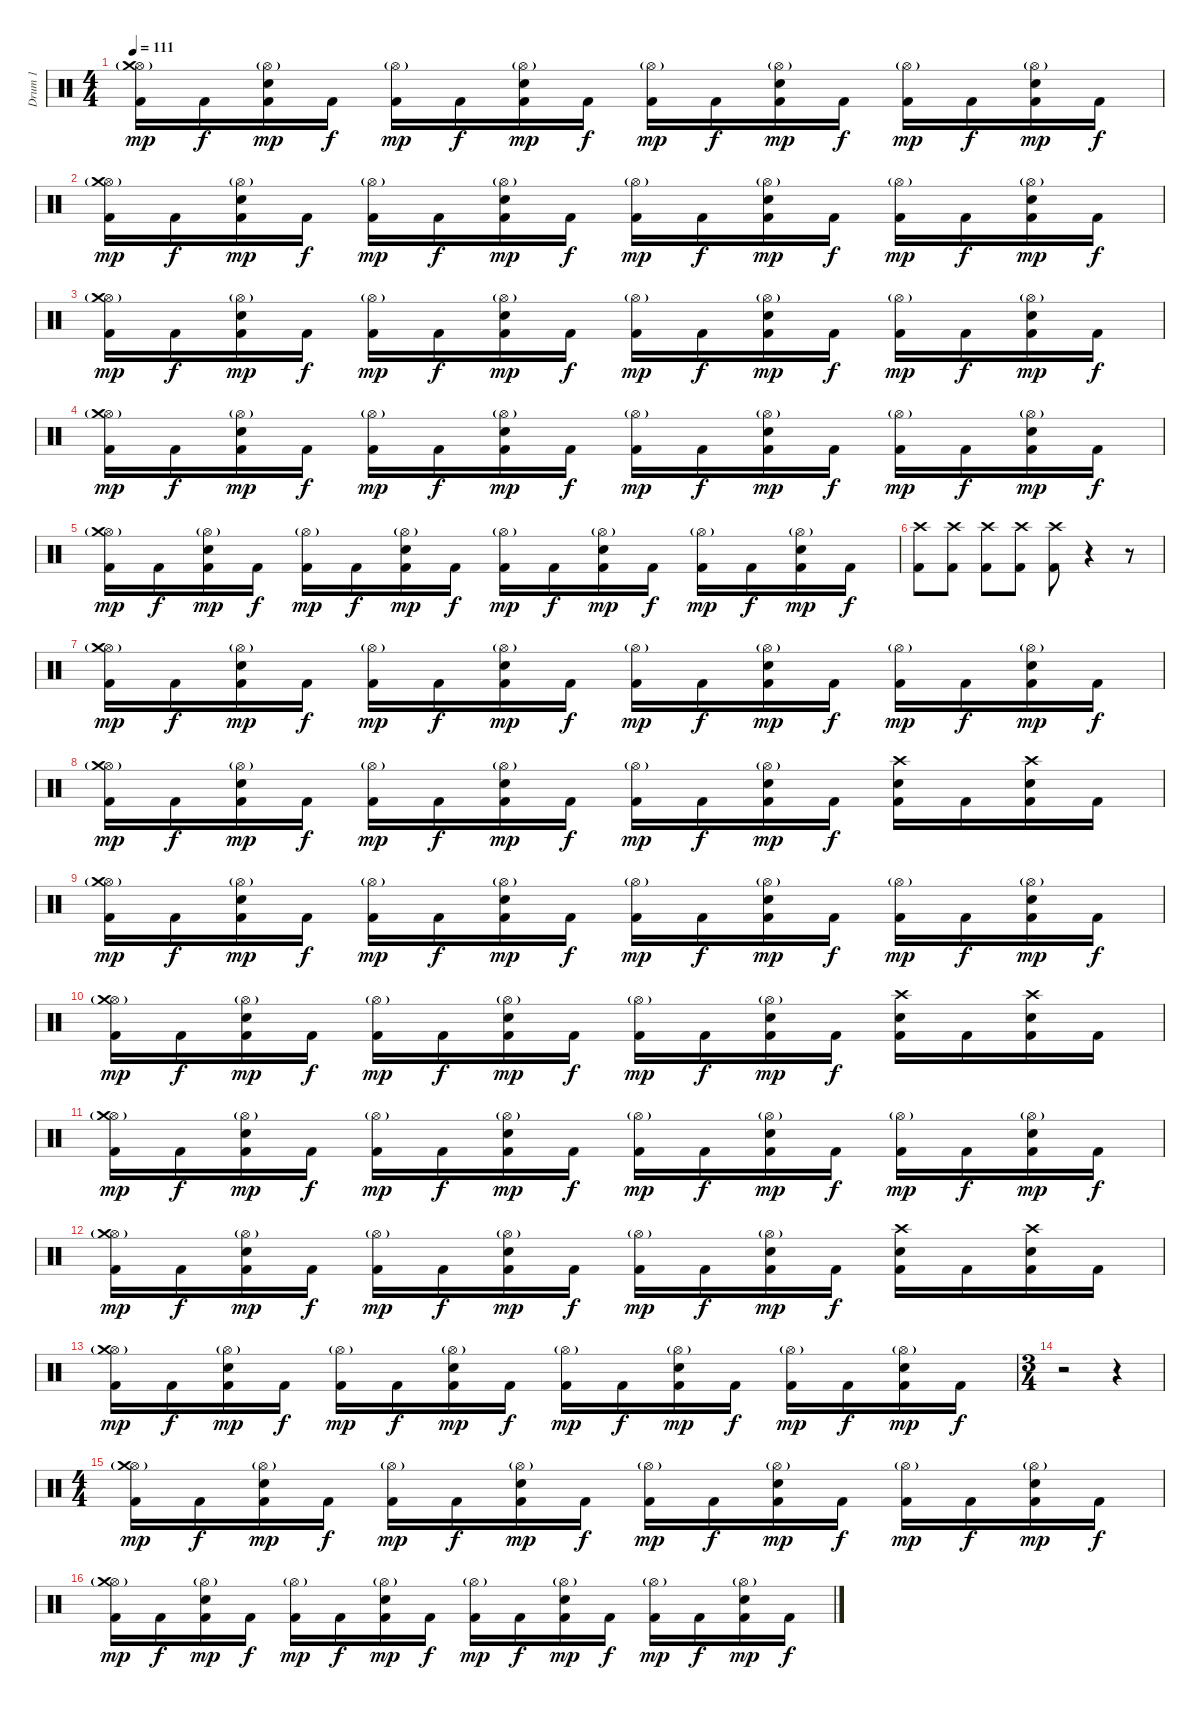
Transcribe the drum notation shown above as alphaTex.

\track ("Drum 1" "Drum 1") {instrument percussion}
\staff {score}
\articulation defaults
\ts (4 4)
\tempo 111
\clef neutral
\ks c
("Kick (hit) 2" "Hi-Hat (open)"{g} "Crash medium (hit)").16{dy mp} "Kick (hit) 2".16{dy f} ("Kick (hit) 2" "Hi-Hat (open)"{g} "Electric Snare (hit)").16{dy mp} "Kick (hit) 2".16{dy f} ("Kick (hit) 2" "Hi-Hat (open)"{g}).16{dy mp} "Kick (hit) 2".16{dy f} ("Kick (hit) 2" "Hi-Hat (open)"{g} "Electric Snare (hit)").16{dy mp} "Kick (hit) 2".16{dy f} ("Kick (hit) 2" "Hi-Hat (open)"{g}).16{dy mp} "Kick (hit) 2".16{dy f} ("Kick (hit) 2" "Hi-Hat (open)"{g} "Electric Snare (hit)").16{dy mp} "Kick (hit) 2".16{dy f} ("Kick (hit) 2" "Hi-Hat (open)"{g}).16{dy mp} "Kick (hit) 2".16{dy f} ("Kick (hit) 2" "Hi-Hat (open)"{g} "Electric Snare (hit)").16{dy mp} "Kick (hit) 2".16{dy f} |
("Kick (hit) 2" "Hi-Hat (open)"{g} "Crash medium (hit)").16{dy mp} "Kick (hit) 2".16{dy f} ("Kick (hit) 2" "Hi-Hat (open)"{g} "Electric Snare (hit)").16{dy mp} "Kick (hit) 2".16{dy f} ("Kick (hit) 2" "Hi-Hat (open)"{g}).16{dy mp} "Kick (hit) 2".16{dy f} ("Kick (hit) 2" "Hi-Hat (open)"{g} "Electric Snare (hit)").16{dy mp} "Kick (hit) 2".16{dy f} ("Kick (hit) 2" "Hi-Hat (open)"{g}).16{dy mp} "Kick (hit) 2".16{dy f} ("Kick (hit) 2" "Hi-Hat (open)"{g} "Electric Snare (hit)").16{dy mp} "Kick (hit) 2".16{dy f} ("Kick (hit) 2" "Hi-Hat (open)"{g}).16{dy mp} "Kick (hit) 2".16{dy f} ("Kick (hit) 2" "Hi-Hat (open)"{g} "Electric Snare (hit)").16{dy mp} "Kick (hit) 2".16{dy f} |
("Kick (hit) 2" "Hi-Hat (open)"{g} "Crash medium (hit)").16{dy mp} "Kick (hit) 2".16{dy f} ("Kick (hit) 2" "Hi-Hat (open)"{g} "Electric Snare (hit)").16{dy mp} "Kick (hit) 2".16{dy f} ("Kick (hit) 2" "Hi-Hat (open)"{g}).16{dy mp} "Kick (hit) 2".16{dy f} ("Kick (hit) 2" "Hi-Hat (open)"{g} "Electric Snare (hit)").16{dy mp} "Kick (hit) 2".16{dy f} ("Kick (hit) 2" "Hi-Hat (open)"{g}).16{dy mp} "Kick (hit) 2".16{dy f} ("Kick (hit) 2" "Hi-Hat (open)"{g} "Electric Snare (hit)").16{dy mp} "Kick (hit) 2".16{dy f} ("Kick (hit) 2" "Hi-Hat (open)"{g}).16{dy mp} "Kick (hit) 2".16{dy f} ("Kick (hit) 2" "Hi-Hat (open)"{g} "Electric Snare (hit)").16{dy mp} "Kick (hit) 2".16{dy f} |
("Kick (hit) 2" "Hi-Hat (open)"{g} "Crash medium (hit)").16{dy mp} "Kick (hit) 2".16{dy f} ("Kick (hit) 2" "Hi-Hat (open)"{g} "Electric Snare (hit)").16{dy mp} "Kick (hit) 2".16{dy f} ("Kick (hit) 2" "Hi-Hat (open)"{g}).16{dy mp} "Kick (hit) 2".16{dy f} ("Kick (hit) 2" "Hi-Hat (open)"{g} "Electric Snare (hit)").16{dy mp} "Kick (hit) 2".16{dy f} ("Kick (hit) 2" "Hi-Hat (open)"{g}).16{dy mp} "Kick (hit) 2".16{dy f} ("Kick (hit) 2" "Hi-Hat (open)"{g} "Electric Snare (hit)").16{dy mp} "Kick (hit) 2".16{dy f} ("Kick (hit) 2" "Hi-Hat (open)"{g}).16{dy mp} "Kick (hit) 2".16{dy f} ("Kick (hit) 2" "Hi-Hat (open)"{g} "Electric Snare (hit)").16{dy mp} "Kick (hit) 2".16{dy f} |
("Kick (hit) 2" "Hi-Hat (open)"{g} "Crash medium (hit)").16{dy mp} "Kick (hit) 2".16{dy f} ("Kick (hit) 2" "Hi-Hat (open)"{g} "Electric Snare (hit)").16{dy mp} "Kick (hit) 2".16{dy f} ("Kick (hit) 2" "Hi-Hat (open)"{g}).16{dy mp} "Kick (hit) 2".16{dy f} ("Kick (hit) 2" "Hi-Hat (open)"{g} "Electric Snare (hit)").16{dy mp} "Kick (hit) 2".16{dy f} ("Kick (hit) 2" "Hi-Hat (open)"{g}).16{dy mp} "Kick (hit) 2".16{dy f} ("Kick (hit) 2" "Hi-Hat (open)"{g} "Electric Snare (hit)").16{dy mp} "Kick (hit) 2".16{dy f} ("Kick (hit) 2" "Hi-Hat (open)"{g}).16{dy mp} "Kick (hit) 2".16{dy f} ("Kick (hit) 2" "Hi-Hat (open)"{g} "Electric Snare (hit)").16{dy mp} "Kick (hit) 2".16{dy f} |
("Kick (hit) 2" "Crash high (hit)").8 ("Kick (hit) 2" "Crash high (hit)").8 ("Kick (hit) 2" "Crash high (hit)").8 ("Kick (hit) 2" "Crash high (hit)").8 ("Kick (hit) 2" "Crash high (hit)").8 r.4 r.8 |
("Kick (hit) 2" "Hi-Hat (open)"{g} "Crash medium (hit)").16{dy mp} "Kick (hit) 2".16{dy f} ("Kick (hit) 2" "Hi-Hat (open)"{g} "Electric Snare (hit)").16{dy mp} "Kick (hit) 2".16{dy f} ("Kick (hit) 2" "Hi-Hat (open)"{g}).16{dy mp} "Kick (hit) 2".16{dy f} ("Kick (hit) 2" "Hi-Hat (open)"{g} "Electric Snare (hit)").16{dy mp} "Kick (hit) 2".16{dy f} ("Kick (hit) 2" "Hi-Hat (open)"{g}).16{dy mp} "Kick (hit) 2".16{dy f} ("Kick (hit) 2" "Hi-Hat (open)"{g} "Electric Snare (hit)").16{dy mp} "Kick (hit) 2".16{dy f} ("Kick (hit) 2" "Hi-Hat (open)"{g}).16{dy mp} "Kick (hit) 2".16{dy f} ("Kick (hit) 2" "Hi-Hat (open)"{g} "Electric Snare (hit)").16{dy mp} "Kick (hit) 2".16{dy f} |
("Kick (hit) 2" "Hi-Hat (open)"{g} "Crash medium (hit)").16{dy mp} "Kick (hit) 2".16{dy f} ("Kick (hit) 2" "Hi-Hat (open)"{g} "Electric Snare (hit)").16{dy mp} "Kick (hit) 2".16{dy f} ("Kick (hit) 2" "Hi-Hat (open)"{g}).16{dy mp} "Kick (hit) 2".16{dy f} ("Kick (hit) 2" "Hi-Hat (open)"{g} "Electric Snare (hit)").16{dy mp} "Kick (hit) 2".16{dy f} ("Kick (hit) 2" "Hi-Hat (open)"{g}).16{dy mp} "Kick (hit) 2".16{dy f} ("Kick (hit) 2" "Hi-Hat (open)"{g} "Electric Snare (hit)").16{dy mp} "Kick (hit) 2".16{dy f} ("Kick (hit) 2" "Crash high (hit)" "Electric Snare (hit)").16 "Kick (hit) 2".16 ("Kick (hit) 2" "Crash high (hit)" "Electric Snare (hit)").16 "Kick (hit) 2".16 |
("Kick (hit) 2" "Hi-Hat (open)"{g} "Crash medium (hit)").16{dy mp} "Kick (hit) 2".16{dy f} ("Kick (hit) 2" "Hi-Hat (open)"{g} "Electric Snare (hit)").16{dy mp} "Kick (hit) 2".16{dy f} ("Kick (hit) 2" "Hi-Hat (open)"{g}).16{dy mp} "Kick (hit) 2".16{dy f} ("Kick (hit) 2" "Hi-Hat (open)"{g} "Electric Snare (hit)").16{dy mp} "Kick (hit) 2".16{dy f} ("Kick (hit) 2" "Hi-Hat (open)"{g}).16{dy mp} "Kick (hit) 2".16{dy f} ("Kick (hit) 2" "Hi-Hat (open)"{g} "Electric Snare (hit)").16{dy mp} "Kick (hit) 2".16{dy f} ("Kick (hit) 2" "Hi-Hat (open)"{g}).16{dy mp} "Kick (hit) 2".16{dy f} ("Kick (hit) 2" "Hi-Hat (open)"{g} "Electric Snare (hit)").16{dy mp} "Kick (hit) 2".16{dy f} |
("Kick (hit) 2" "Hi-Hat (open)"{g} "Crash medium (hit)").16{dy mp} "Kick (hit) 2".16{dy f} ("Kick (hit) 2" "Hi-Hat (open)"{g} "Electric Snare (hit)").16{dy mp} "Kick (hit) 2".16{dy f} ("Kick (hit) 2" "Hi-Hat (open)"{g}).16{dy mp} "Kick (hit) 2".16{dy f} ("Kick (hit) 2" "Hi-Hat (open)"{g} "Electric Snare (hit)").16{dy mp} "Kick (hit) 2".16{dy f} ("Kick (hit) 2" "Hi-Hat (open)"{g}).16{dy mp} "Kick (hit) 2".16{dy f} ("Kick (hit) 2" "Hi-Hat (open)"{g} "Electric Snare (hit)").16{dy mp} "Kick (hit) 2".16{dy f} ("Kick (hit) 2" "Crash high (hit)" "Electric Snare (hit)").16 "Kick (hit) 2".16 ("Kick (hit) 2" "Crash high (hit)" "Electric Snare (hit)").16 "Kick (hit) 2".16 |
("Kick (hit) 2" "Hi-Hat (open)"{g} "Crash medium (hit)").16{dy mp} "Kick (hit) 2".16{dy f} ("Kick (hit) 2" "Hi-Hat (open)"{g} "Electric Snare (hit)").16{dy mp} "Kick (hit) 2".16{dy f} ("Kick (hit) 2" "Hi-Hat (open)"{g}).16{dy mp} "Kick (hit) 2".16{dy f} ("Kick (hit) 2" "Hi-Hat (open)"{g} "Electric Snare (hit)").16{dy mp} "Kick (hit) 2".16{dy f} ("Kick (hit) 2" "Hi-Hat (open)"{g}).16{dy mp} "Kick (hit) 2".16{dy f} ("Kick (hit) 2" "Hi-Hat (open)"{g} "Electric Snare (hit)").16{dy mp} "Kick (hit) 2".16{dy f} ("Kick (hit) 2" "Hi-Hat (open)"{g}).16{dy mp} "Kick (hit) 2".16{dy f} ("Kick (hit) 2" "Hi-Hat (open)"{g} "Electric Snare (hit)").16{dy mp} "Kick (hit) 2".16{dy f} |
("Kick (hit) 2" "Hi-Hat (open)"{g} "Crash medium (hit)").16{dy mp} "Kick (hit) 2".16{dy f} ("Kick (hit) 2" "Hi-Hat (open)"{g} "Electric Snare (hit)").16{dy mp} "Kick (hit) 2".16{dy f} ("Kick (hit) 2" "Hi-Hat (open)"{g}).16{dy mp} "Kick (hit) 2".16{dy f} ("Kick (hit) 2" "Hi-Hat (open)"{g} "Electric Snare (hit)").16{dy mp} "Kick (hit) 2".16{dy f} ("Kick (hit) 2" "Hi-Hat (open)"{g}).16{dy mp} "Kick (hit) 2".16{dy f} ("Kick (hit) 2" "Hi-Hat (open)"{g} "Electric Snare (hit)").16{dy mp} "Kick (hit) 2".16{dy f} ("Kick (hit) 2" "Crash high (hit)" "Electric Snare (hit)").16 "Kick (hit) 2".16 ("Kick (hit) 2" "Crash high (hit)" "Electric Snare (hit)").16 "Kick (hit) 2".16 |
("Kick (hit) 2" "Hi-Hat (open)"{g} "Crash medium (hit)").16{dy mp} "Kick (hit) 2".16{dy f} ("Kick (hit) 2" "Hi-Hat (open)"{g} "Electric Snare (hit)").16{dy mp} "Kick (hit) 2".16{dy f} ("Kick (hit) 2" "Hi-Hat (open)"{g}).16{dy mp} "Kick (hit) 2".16{dy f} ("Kick (hit) 2" "Hi-Hat (open)"{g} "Electric Snare (hit)").16{dy mp} "Kick (hit) 2".16{dy f} ("Kick (hit) 2" "Hi-Hat (open)"{g}).16{dy mp} "Kick (hit) 2".16{dy f} ("Kick (hit) 2" "Hi-Hat (open)"{g} "Electric Snare (hit)").16{dy mp} "Kick (hit) 2".16{dy f} ("Kick (hit) 2" "Hi-Hat (open)"{g}).16{dy mp} "Kick (hit) 2".16{dy f} ("Kick (hit) 2" "Hi-Hat (open)"{g} "Electric Snare (hit)").16{dy mp} "Kick (hit) 2".16{dy f} |
\ts (3 4)
r.2 r.4 |
\ts (4 4)
("Kick (hit) 2" "Hi-Hat (open)"{g} "Crash medium (hit)").16{dy mp} "Kick (hit) 2".16{dy f} ("Kick (hit) 2" "Hi-Hat (open)"{g} "Electric Snare (hit)").16{dy mp} "Kick (hit) 2".16{dy f} ("Kick (hit) 2" "Hi-Hat (open)"{g}).16{dy mp} "Kick (hit) 2".16{dy f} ("Kick (hit) 2" "Hi-Hat (open)"{g} "Electric Snare (hit)").16{dy mp} "Kick (hit) 2".16{dy f} ("Kick (hit) 2" "Hi-Hat (open)"{g}).16{dy mp} "Kick (hit) 2".16{dy f} ("Kick (hit) 2" "Hi-Hat (open)"{g} "Electric Snare (hit)").16{dy mp} "Kick (hit) 2".16{dy f} ("Kick (hit) 2" "Hi-Hat (open)"{g}).16{dy mp} "Kick (hit) 2".16{dy f} ("Kick (hit) 2" "Hi-Hat (open)"{g} "Electric Snare (hit)").16{dy mp} "Kick (hit) 2".16{dy f} |
("Kick (hit) 2" "Hi-Hat (open)"{g} "Crash medium (hit)").16{dy mp} "Kick (hit) 2".16{dy f} ("Kick (hit) 2" "Hi-Hat (open)"{g} "Electric Snare (hit)").16{dy mp} "Kick (hit) 2".16{dy f} ("Kick (hit) 2" "Hi-Hat (open)"{g}).16{dy mp} "Kick (hit) 2".16{dy f} ("Kick (hit) 2" "Hi-Hat (open)"{g} "Electric Snare (hit)").16{dy mp} "Kick (hit) 2".16{dy f} ("Kick (hit) 2" "Hi-Hat (open)"{g}).16{dy mp} "Kick (hit) 2".16{dy f} ("Kick (hit) 2" "Hi-Hat (open)"{g} "Electric Snare (hit)").16{dy mp} "Kick (hit) 2".16{dy f} ("Kick (hit) 2" "Hi-Hat (open)"{g}).16{dy mp} "Kick (hit) 2".16{dy f} ("Kick (hit) 2" "Hi-Hat (open)"{g} "Electric Snare (hit)").16{dy mp} "Kick (hit) 2".16{dy f}
